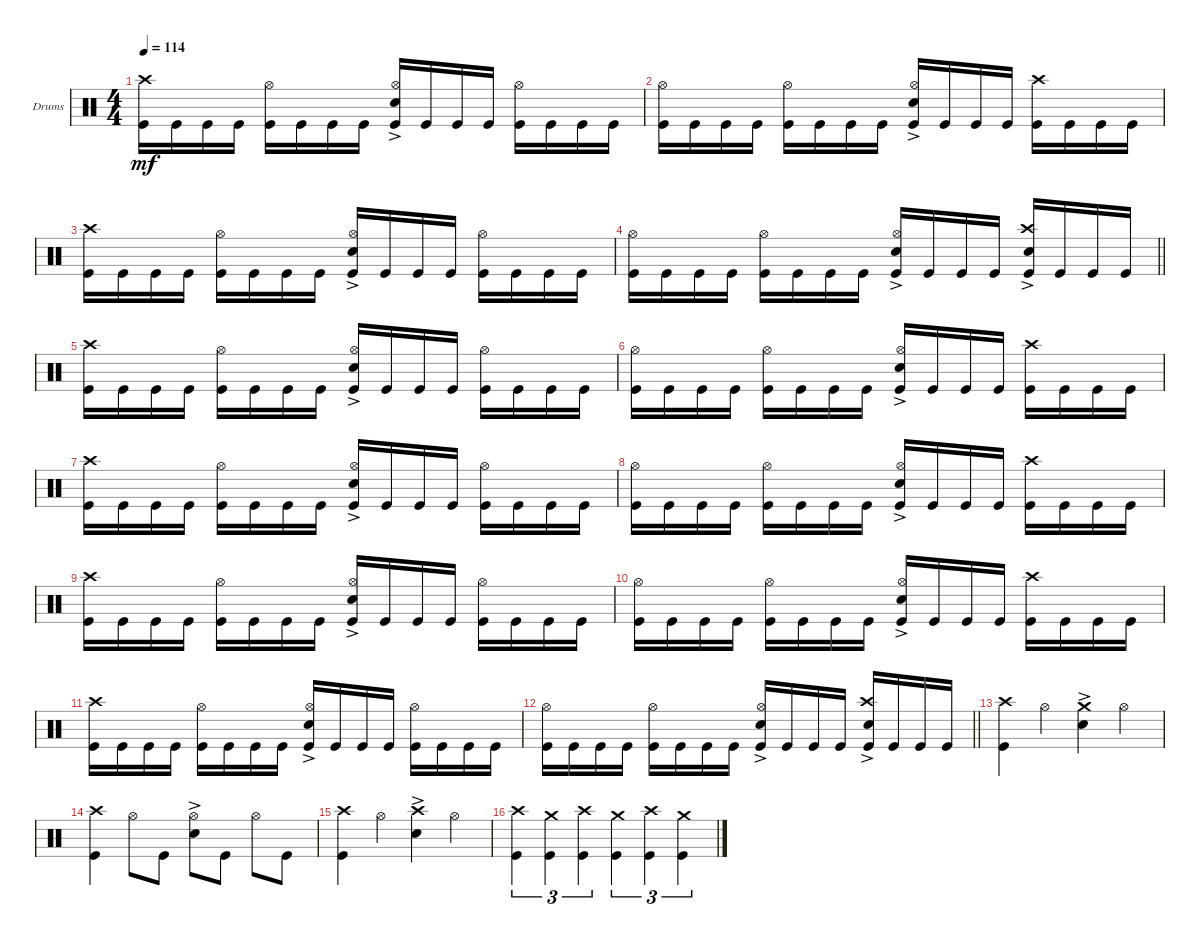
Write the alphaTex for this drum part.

\bracketExtendMode groupsimilarinstruments
\firstSystemTrackNameOrientation horizontal
\otherSystemsTrackNameOrientation horizontal
\track ("Drumkit" "Drums") {instrument percussion}
\staff {score}
\articulation defaults
\ts (4 4)
\tempo 114
\clef neutral
\ks c
("Kick (hit)" "Crash high (hit)").16{dy mf} "Kick (hit)".16 "Kick (hit)".16 "Kick (hit)".16 ("Kick (hit)" "Hi-Hat (open)").16 "Kick (hit)".16 "Kick (hit)".16 "Kick (hit)".16 ("Kick (hit)" "Snare (hit) 2"{ac} "Hi-Hat (open)").16 "Kick (hit)".16 "Kick (hit)".16 "Kick (hit)".16 ("Kick (hit)" "Hi-Hat (open)").16 "Kick (hit)".16 "Kick (hit)".16 "Kick (hit)".16 |
("Kick (hit)" "Hi-Hat (open)").16 "Kick (hit)".16 "Kick (hit)".16 "Kick (hit)".16 ("Kick (hit)" "Hi-Hat (open)").16 "Kick (hit)".16 "Kick (hit)".16 "Kick (hit)".16 ("Kick (hit)" "Snare (hit) 2"{ac} "Hi-Hat (open)").16 "Kick (hit)".16 "Kick (hit)".16 "Kick (hit)".16 ("Kick (hit)" "Crash high (hit)").16 "Kick (hit)".16 "Kick (hit)".16 "Kick (hit)".16 |
("Kick (hit)" "Crash high (hit)").16 "Kick (hit)".16 "Kick (hit)".16 "Kick (hit)".16 ("Kick (hit)" "Hi-Hat (open)").16 "Kick (hit)".16 "Kick (hit)".16 "Kick (hit)".16 ("Kick (hit)" "Snare (hit) 2"{ac} "Hi-Hat (open)").16 "Kick (hit)".16 "Kick (hit)".16 "Kick (hit)".16 ("Kick (hit)" "Hi-Hat (open)").16 "Kick (hit)".16 "Kick (hit)".16 "Kick (hit)".16 |
\barLineRight lightlight
("Kick (hit)" "Hi-Hat (open)").16 "Kick (hit)".16 "Kick (hit)".16 "Kick (hit)".16 ("Kick (hit)" "Hi-Hat (open)").16 "Kick (hit)".16 "Kick (hit)".16 "Kick (hit)".16 ("Kick (hit)" "Snare (hit) 2"{ac} "Hi-Hat (open)").16 "Kick (hit)".16 "Kick (hit)".16 "Kick (hit)".16 ("Kick (hit)" "Crash high (hit)" "Snare (hit) 2"{ac}).16 "Kick (hit)".16 "Kick (hit)".16 "Kick (hit)".16 |
("Kick (hit)" "Crash high (hit)").16 "Kick (hit)".16 "Kick (hit)".16 "Kick (hit)".16 ("Kick (hit)" "Hi-Hat (open)").16 "Kick (hit)".16 "Kick (hit)".16 "Kick (hit)".16 ("Kick (hit)" "Snare (hit) 2"{ac} "Hi-Hat (open)").16 "Kick (hit)".16 "Kick (hit)".16 "Kick (hit)".16 ("Kick (hit)" "Hi-Hat (open)").16 "Kick (hit)".16 "Kick (hit)".16 "Kick (hit)".16 |
("Kick (hit)" "Hi-Hat (open)").16 "Kick (hit)".16 "Kick (hit)".16 "Kick (hit)".16 ("Kick (hit)" "Hi-Hat (open)").16 "Kick (hit)".16 "Kick (hit)".16 "Kick (hit)".16 ("Kick (hit)" "Snare (hit) 2"{ac} "Hi-Hat (open)").16 "Kick (hit)".16 "Kick (hit)".16 "Kick (hit)".16 ("Kick (hit)" "Crash high (hit)").16 "Kick (hit)".16 "Kick (hit)".16 "Kick (hit)".16 |
("Kick (hit)" "Crash high (hit)").16 "Kick (hit)".16 "Kick (hit)".16 "Kick (hit)".16 ("Kick (hit)" "Hi-Hat (open)").16 "Kick (hit)".16 "Kick (hit)".16 "Kick (hit)".16 ("Kick (hit)" "Snare (hit) 2"{ac} "Hi-Hat (open)").16 "Kick (hit)".16 "Kick (hit)".16 "Kick (hit)".16 ("Kick (hit)" "Hi-Hat (open)").16 "Kick (hit)".16 "Kick (hit)".16 "Kick (hit)".16 |
("Kick (hit)" "Hi-Hat (open)").16 "Kick (hit)".16 "Kick (hit)".16 "Kick (hit)".16 ("Kick (hit)" "Hi-Hat (open)").16 "Kick (hit)".16 "Kick (hit)".16 "Kick (hit)".16 ("Kick (hit)" "Snare (hit) 2"{ac} "Hi-Hat (open)").16 "Kick (hit)".16 "Kick (hit)".16 "Kick (hit)".16 ("Kick (hit)" "Crash high (hit)").16 "Kick (hit)".16 "Kick (hit)".16 "Kick (hit)".16 |
("Kick (hit)" "Crash high (hit)").16 "Kick (hit)".16 "Kick (hit)".16 "Kick (hit)".16 ("Kick (hit)" "Hi-Hat (open)").16 "Kick (hit)".16 "Kick (hit)".16 "Kick (hit)".16 ("Kick (hit)" "Snare (hit) 2"{ac} "Hi-Hat (open)").16 "Kick (hit)".16 "Kick (hit)".16 "Kick (hit)".16 ("Kick (hit)" "Hi-Hat (open)").16 "Kick (hit)".16 "Kick (hit)".16 "Kick (hit)".16 |
("Kick (hit)" "Hi-Hat (open)").16 "Kick (hit)".16 "Kick (hit)".16 "Kick (hit)".16 ("Kick (hit)" "Hi-Hat (open)").16 "Kick (hit)".16 "Kick (hit)".16 "Kick (hit)".16 ("Kick (hit)" "Snare (hit) 2"{ac} "Hi-Hat (open)").16 "Kick (hit)".16 "Kick (hit)".16 "Kick (hit)".16 ("Kick (hit)" "Crash high (hit)").16 "Kick (hit)".16 "Kick (hit)".16 "Kick (hit)".16 |
("Kick (hit)" "Crash high (hit)").16 "Kick (hit)".16 "Kick (hit)".16 "Kick (hit)".16 ("Kick (hit)" "Hi-Hat (open)").16 "Kick (hit)".16 "Kick (hit)".16 "Kick (hit)".16 ("Kick (hit)" "Snare (hit) 2"{ac} "Hi-Hat (open)").16 "Kick (hit)".16 "Kick (hit)".16 "Kick (hit)".16 ("Kick (hit)" "Hi-Hat (open)").16 "Kick (hit)".16 "Kick (hit)".16 "Kick (hit)".16 |
\barLineRight lightlight
("Kick (hit)" "Hi-Hat (open)").16 "Kick (hit)".16 "Kick (hit)".16 "Kick (hit)".16 ("Kick (hit)" "Hi-Hat (open)").16 "Kick (hit)".16 "Kick (hit)".16 "Kick (hit)".16 ("Kick (hit)" "Snare (hit) 2"{ac} "Hi-Hat (open)").16 "Kick (hit)".16 "Kick (hit)".16 "Kick (hit)".16 ("Kick (hit)" "Crash high (hit)" "Snare (hit) 2"{ac}).16 "Kick (hit)".16 "Kick (hit)".16 "Kick (hit)".16 |
("Kick (hit)" "Crash high (hit)").4 "Hi-Hat (open)".4 ("Snare (hit) 2"{ac} "Crash medium (hit)").4 "Hi-Hat (open)".4 |
("Kick (hit)" "Crash high (hit)").4 "Hi-Hat (open)".8 "Kick (hit)".8 ("Snare (hit) 2"{ac} "Hi-Hat (open)").8 "Kick (hit)".8 "Hi-Hat (open)".8 "Kick (hit)".8 |
("Kick (hit)" "Crash high (hit)").4 "Hi-Hat (open)".4 ("Snare (hit) 2"{ac} "Crash high (hit)").4 "Hi-Hat (open)".4 |
("Kick (hit)" "Crash high (hit)").4{tu (3 2)} ("Kick (hit)" "Crash medium (hit)").4{tu (3 2)} ("Kick (hit)" "Crash high (hit)").4{tu (3 2)} ("Kick (hit)" "Crash medium (hit)").4{tu (3 2)} ("Kick (hit)" "Crash high (hit)").4{tu (3 2)} ("Kick (hit)" "Crash medium (hit)").4{tu (3 2)}
